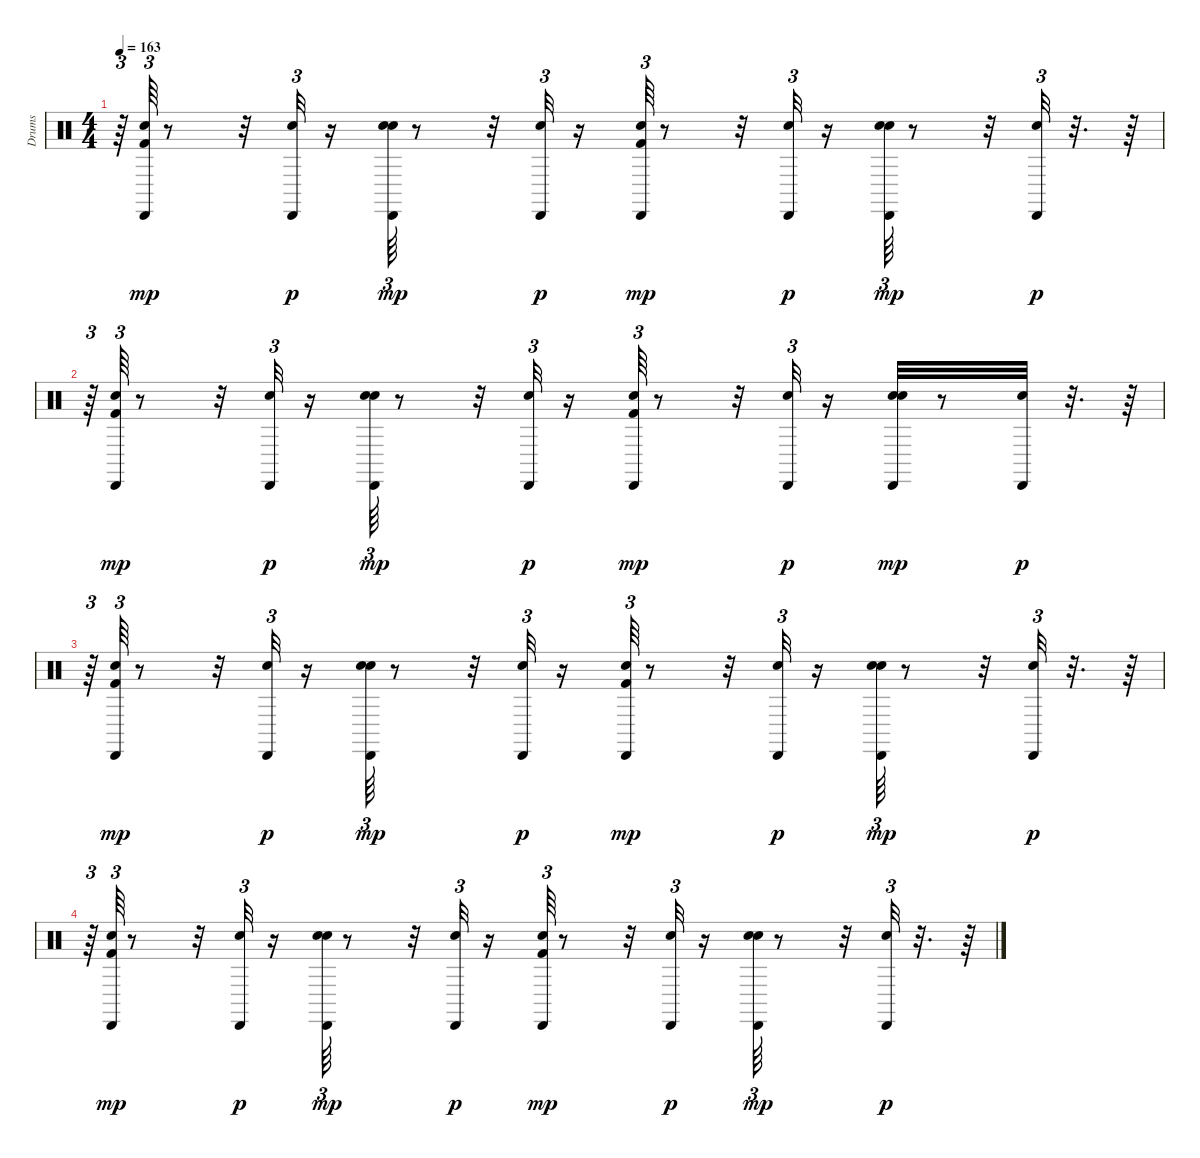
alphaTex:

\track ("Drums               " "Drums     ") {instrument percussion}
\staff {score}
\articulation defaults
\ts (4 4)
\tempo 163
\clef neutral
\ks c
r.64{tu (3 2) dy p} ("Kick (hit) 2" "Snare (hit) 2" "Cabasa (hit)").64{tu (3 2) dy mp} r.8 r.32 ("Snare (hit) 2" "Cabasa (hit)").32{tu (3 2) dy p} r.16 ("Snare (hit) 2" "Hand Clap (hit)" "Cabasa (hit)").64{tu (3 2) dy mp} r.8 r.32 ("Snare (hit) 2" "Cabasa (hit)").32{tu (3 2) dy p} r.16 ("Kick (hit) 2" "Snare (hit) 2" "Cabasa (hit)").64{tu (3 2) dy mp} r.8 r.32 ("Snare (hit) 2" "Cabasa (hit)").32{tu (3 2) dy p} r.16 ("Snare (hit) 2" "Hand Clap (hit)" "Cabasa (hit)").64{tu (3 2) dy mp} r.8 r.32 ("Snare (hit) 2" "Cabasa (hit)").32{tu (3 2) dy p} r.32{d} r.64 |
r.64{tu (3 2)} ("Kick (hit) 2" "Snare (hit) 2" "Cabasa (hit)").64{tu (3 2) dy mp} r.8 r.32 ("Snare (hit) 2" "Cabasa (hit)").32{tu (3 2) dy p} r.16 ("Snare (hit) 2" "Hand Clap (hit)" "Cabasa (hit)").64{tu (3 2) dy mp} r.8 r.32 ("Snare (hit) 2" "Cabasa (hit)").32{tu (3 2) dy p} r.16 ("Kick (hit) 2" "Snare (hit) 2" "Cabasa (hit)").64{tu (3 2) dy mp} r.8 r.32 ("Snare (hit) 2" "Cabasa (hit)").32{tu (3 2) dy p} r.16 ("Snare (hit) 2" "Hand Clap (hit)" "Cabasa (hit)").32{dy mp} r.8 ("Snare (hit) 2" "Cabasa (hit)").32{dy p} r.32{d} r.64 |
r.64{tu (3 2)} ("Kick (hit) 2" "Snare (hit) 2" "Cabasa (hit)").64{tu (3 2) dy mp} r.8 r.32 ("Snare (hit) 2" "Cabasa (hit)").32{tu (3 2) dy p} r.16 ("Snare (hit) 2" "Hand Clap (hit)" "Cabasa (hit)").64{tu (3 2) dy mp} r.8 r.32 ("Snare (hit) 2" "Cabasa (hit)").32{tu (3 2) dy p} r.16 ("Kick (hit) 2" "Snare (hit) 2" "Cabasa (hit)").64{tu (3 2) dy mp} r.8 r.32 ("Snare (hit) 2" "Cabasa (hit)").32{tu (3 2) dy p} r.16 ("Snare (hit) 2" "Hand Clap (hit)" "Cabasa (hit)").64{tu (3 2) dy mp} r.8 r.32 ("Snare (hit) 2" "Cabasa (hit)").32{tu (3 2) dy p} r.32{d} r.64 |
r.64{tu (3 2)} ("Kick (hit) 2" "Snare (hit) 2" "Cabasa (hit)").64{tu (3 2) dy mp} r.8 r.32 ("Snare (hit) 2" "Cabasa (hit)").32{tu (3 2) dy p} r.16 ("Snare (hit) 2" "Hand Clap (hit)" "Cabasa (hit)").64{tu (3 2) dy mp} r.8 r.32 ("Snare (hit) 2" "Cabasa (hit)").32{tu (3 2) dy p} r.16 ("Kick (hit) 2" "Snare (hit) 2" "Cabasa (hit)").64{tu (3 2) dy mp} r.8 r.32 ("Snare (hit) 2" "Cabasa (hit)").32{tu (3 2) dy p} r.16 ("Snare (hit) 2" "Hand Clap (hit)" "Cabasa (hit)").64{tu (3 2) dy mp} r.8 r.32 ("Snare (hit) 2" "Cabasa (hit)").32{tu (3 2) dy p} r.32{d} r.64
